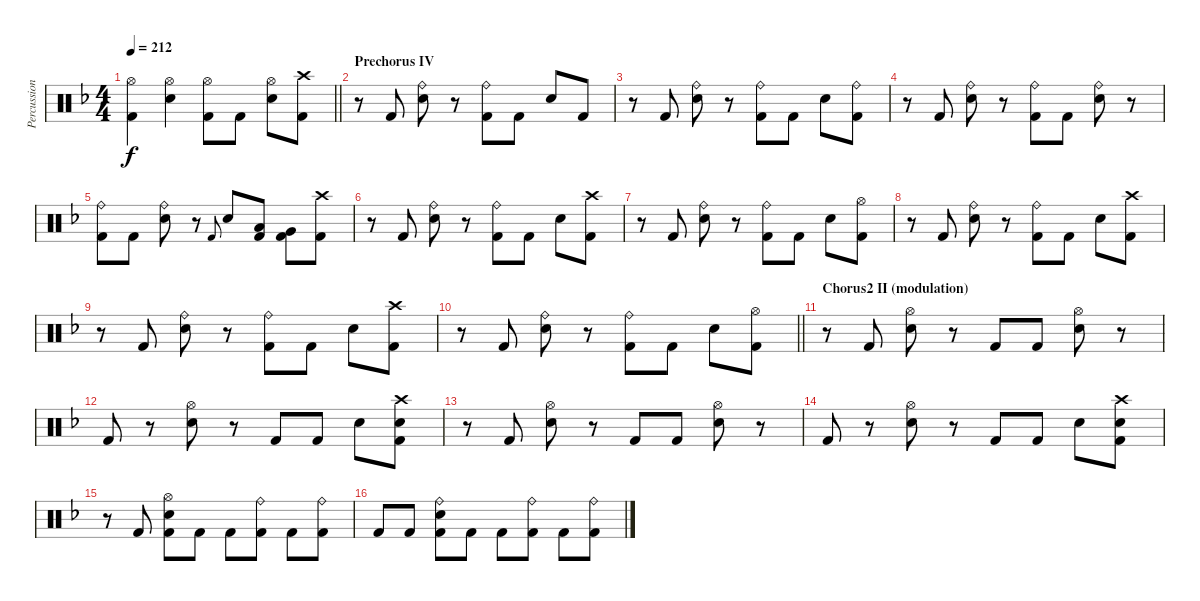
\track ("Percussion" "Percussion") {instrument percussion}
\staff {score}
\articulation defaults
\ts (4 4)
\tempo 212
\clef neutral
\barLineRight lightlight
\ks dminor
("Hi-Hat (open)" "Kick (hit) 2").4{dy f} ("Hi-Hat (open)" "Electric Snare (hit)").4 ("Hi-Hat (open)" "Kick (hit) 2").8 "Kick (hit) 2".8 ("Hi-Hat (open)" "Electric Snare (hit)").8 ("Crash high (hit)" "Kick (hit) 2").8 |
\section ("" "Prechorus IV")
r.8 "Kick (hit) 2".8 ("Ride (bell)" "Electric Snare (hit)").8 r.8 ("Ride (bell)" "Kick (hit) 2").8 "Kick (hit) 2".8 "Electric Snare (hit)".8 "Kick (hit) 2".8 |
r.8 "Kick (hit) 2".8 ("Ride (bell)" "Electric Snare (hit)").8 r.8 ("Ride (bell)" "Kick (hit) 2").8 "Kick (hit) 2".8 "Electric Snare (hit)".8 ("Ride (bell)" "Kick (hit) 2").8 |
r.8 "Kick (hit) 2".8 ("Ride (bell)" "Electric Snare (hit)").8 r.8 ("Ride (bell)" "Kick (hit) 2").8 "Kick (hit) 2".8 ("Ride (bell)" "Electric Snare (hit)").8 r.8 |
("Ride (bell)" "Kick (hit) 2").8 "Kick (hit) 2".8 ("Ride (bell)" "Electric Snare (hit)").8 r.8 "Kick (hit) 2".8{gr onbeat} "Electric Snare (hit)".8 ("Low Tom (hit)" "Kick (hit) 2").8 ("Very Low Tom (hit)" "Kick (hit) 2").8 ("Crash high (hit)" "Kick (hit) 2").8 |
r.8 "Kick (hit) 2".8 ("Ride (bell)" "Electric Snare (hit)").8 r.8 ("Ride (bell)" "Kick (hit) 2").8 "Kick (hit) 2".8 "Electric Snare (hit)".8 ("Crash high (hit)" "Kick (hit) 2").8 |
r.8 "Kick (hit) 2".8 ("Ride (bell)" "Electric Snare (hit)").8 r.8 ("Ride (bell)" "Kick (hit) 2").8 "Kick (hit) 2".8 "Electric Snare (hit)".8 ("Hi-Hat (open)" "Kick (hit) 2").8 |
r.8 "Kick (hit) 2".8 ("Ride (bell)" "Electric Snare (hit)").8 r.8 ("Ride (bell)" "Kick (hit) 2").8 "Kick (hit) 2".8 "Electric Snare (hit)".8 ("Crash high (hit)" "Kick (hit) 2").8 |
r.8 "Kick (hit) 2".8 ("Ride (bell)" "Electric Snare (hit)").8 r.8 ("Ride (bell)" "Kick (hit) 2").8 "Kick (hit) 2".8 "Electric Snare (hit)".8 ("Crash high (hit)" "Kick (hit) 2").8 |
\barLineRight lightlight
r.8 "Kick (hit) 2".8 ("Ride (bell)" "Electric Snare (hit)").8 r.8 ("Ride (bell)" "Kick (hit) 2").8 "Kick (hit) 2".8 "Electric Snare (hit)".8 ("Hi-Hat (open)" "Kick (hit) 2").8 |
\section ("" "Chorus2 II (modulation)")
r.8 "Kick (hit) 2".8 ("Hi-Hat (open)" "Electric Snare (hit)").8 r.8 "Kick (hit) 2".8 "Kick (hit) 2".8 ("Hi-Hat (open)" "Electric Snare (hit)").8 r.8 |
"Kick (hit) 2".8 r.8 ("Hi-Hat (open)" "Electric Snare (hit)").8 r.8 "Kick (hit) 2".8 "Kick (hit) 2".8 "Electric Snare (hit)".8 ("Crash high (hit)" "Electric Snare (hit)" "Kick (hit) 2").8 |
r.8 "Kick (hit) 2".8 ("Hi-Hat (open)" "Electric Snare (hit)").8 r.8 "Kick (hit) 2".8 "Kick (hit) 2".8 ("Hi-Hat (open)" "Electric Snare (hit)").8 r.8 |
"Kick (hit) 2".8 r.8 ("Hi-Hat (open)" "Electric Snare (hit)").8 r.8 "Kick (hit) 2".8 "Kick (hit) 2".8 "Electric Snare (hit)".8 ("Crash high (hit)" "Electric Snare (hit)" "Kick (hit) 2").8 |
r.8 "Kick (hit) 2".8 ("Hi-Hat (open)" "Electric Snare (hit)" "Kick (hit) 2").8 "Kick (hit) 2".8 "Kick (hit) 2".8 ("Ride (bell)" "Kick (hit) 2").8 "Kick (hit) 2".8 ("Ride (bell)" "Kick (hit) 2").8 |
"Kick (hit) 2".8 "Kick (hit) 2".8 ("Ride (bell)" "Electric Snare (hit)" "Kick (hit) 2").8 "Kick (hit) 2".8 "Kick (hit) 2".8 ("Ride (bell)" "Kick (hit) 2").8 "Kick (hit) 2".8 ("Ride (bell)" "Kick (hit) 2").8
